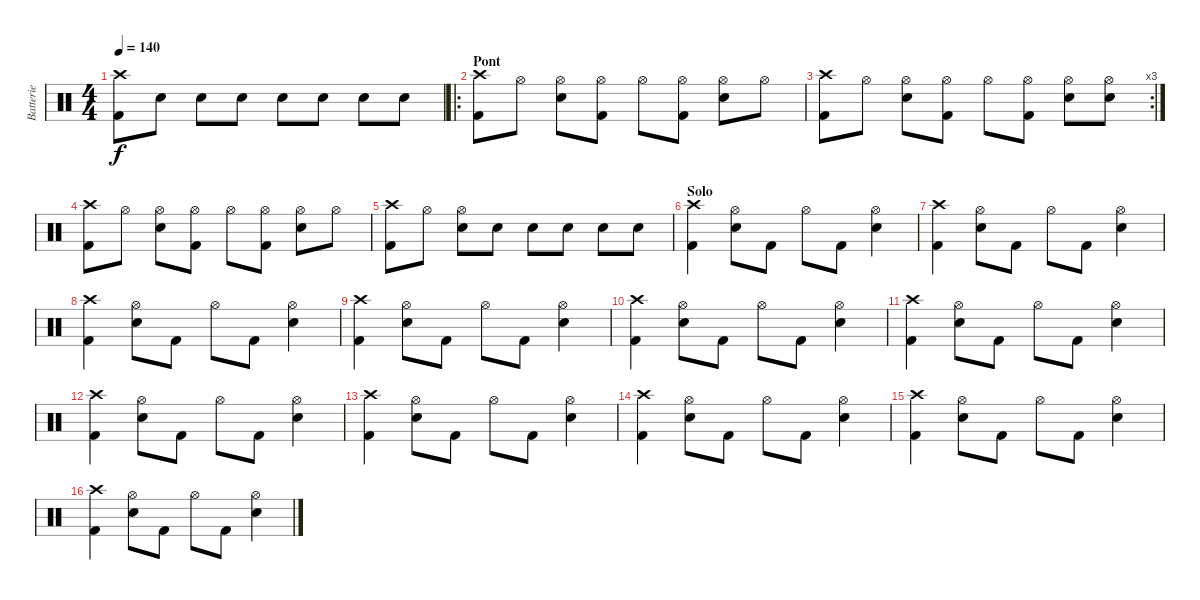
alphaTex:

\track ("Batterie" "Batterie") {instrument percussion}
\staff {score}
\articulation defaults
\ts (4 4)
\tempo 140
\clef neutral
\ks c
("Crash high (hit)" "Kick (hit) 2").8{dy f} "Electric Snare (hit)".8 "Electric Snare (hit)".8 "Electric Snare (hit)".8 "Electric Snare (hit)".8 "Electric Snare (hit)".8 "Electric Snare (hit)".8 "Electric Snare (hit)".8 |
\ro
\section ("" "Pont")
("Crash high (hit)" "Kick (hit) 2").8 "Hi-Hat (open)".8 ("Electric Snare (hit)" "Hi-Hat (open)").8 ("Hi-Hat (open)" "Kick (hit) 2").8 "Hi-Hat (open)".8 ("Hi-Hat (open)" "Kick (hit) 2").8 ("Electric Snare (hit)" "Hi-Hat (open)").8 "Hi-Hat (open)".8 |
\rc 3
("Crash high (hit)" "Kick (hit) 2").8 "Hi-Hat (open)".8 ("Electric Snare (hit)" "Hi-Hat (open)").8 ("Hi-Hat (open)" "Kick (hit) 2").8 "Hi-Hat (open)".8 ("Hi-Hat (open)" "Kick (hit) 2").8 ("Electric Snare (hit)" "Hi-Hat (open)").8 ("Electric Snare (hit)" "Hi-Hat (open)").8 |
("Crash high (hit)" "Kick (hit) 2").8 "Hi-Hat (open)".8 ("Electric Snare (hit)" "Hi-Hat (open)").8 ("Hi-Hat (open)" "Kick (hit) 2").8 "Hi-Hat (open)".8 ("Hi-Hat (open)" "Kick (hit) 2").8 ("Electric Snare (hit)" "Hi-Hat (open)").8 "Hi-Hat (open)".8 |
("Crash high (hit)" "Kick (hit) 2").8 "Hi-Hat (open)".8 ("Electric Snare (hit)" "Hi-Hat (open)").8 "Electric Snare (hit)".8 "Electric Snare (hit)".8 "Electric Snare (hit)".8 "Electric Snare (hit)".8 "Electric Snare (hit)".8 |
\section ("" "Solo")
("Crash high (hit)" "Kick (hit) 2").4 ("Electric Snare (hit)" "Hi-Hat (open)").8 "Kick (hit) 2".8 "Hi-Hat (open)".8 "Kick (hit) 2".8 ("Electric Snare (hit)" "Hi-Hat (open)").4 |
("Crash high (hit)" "Kick (hit) 2").4 ("Electric Snare (hit)" "Hi-Hat (open)").8 "Kick (hit) 2".8 "Hi-Hat (open)".8 "Kick (hit) 2".8 ("Electric Snare (hit)" "Hi-Hat (open)").4 |
("Crash high (hit)" "Kick (hit) 2").4 ("Electric Snare (hit)" "Hi-Hat (open)").8 "Kick (hit) 2".8 "Hi-Hat (open)".8 "Kick (hit) 2".8 ("Electric Snare (hit)" "Hi-Hat (open)").4 |
("Crash high (hit)" "Kick (hit) 2").4 ("Electric Snare (hit)" "Hi-Hat (open)").8 "Kick (hit) 2".8 "Hi-Hat (open)".8 "Kick (hit) 2".8 ("Electric Snare (hit)" "Hi-Hat (open)").4 |
("Crash high (hit)" "Kick (hit) 2").4 ("Electric Snare (hit)" "Hi-Hat (open)").8 "Kick (hit) 2".8 "Hi-Hat (open)".8 "Kick (hit) 2".8 ("Electric Snare (hit)" "Hi-Hat (open)").4 |
("Crash high (hit)" "Kick (hit) 2").4 ("Electric Snare (hit)" "Hi-Hat (open)").8 "Kick (hit) 2".8 "Hi-Hat (open)".8 "Kick (hit) 2".8 ("Electric Snare (hit)" "Hi-Hat (open)").4 |
("Crash high (hit)" "Kick (hit) 2").4 ("Electric Snare (hit)" "Hi-Hat (open)").8 "Kick (hit) 2".8 "Hi-Hat (open)".8 "Kick (hit) 2".8 ("Electric Snare (hit)" "Hi-Hat (open)").4 |
("Crash high (hit)" "Kick (hit) 2").4 ("Electric Snare (hit)" "Hi-Hat (open)").8 "Kick (hit) 2".8 "Hi-Hat (open)".8 "Kick (hit) 2".8 ("Electric Snare (hit)" "Hi-Hat (open)").4 |
("Crash high (hit)" "Kick (hit) 2").4 ("Electric Snare (hit)" "Hi-Hat (open)").8 "Kick (hit) 2".8 "Hi-Hat (open)".8 "Kick (hit) 2".8 ("Electric Snare (hit)" "Hi-Hat (open)").4 |
("Crash high (hit)" "Kick (hit) 2").4 ("Electric Snare (hit)" "Hi-Hat (open)").8 "Kick (hit) 2".8 "Hi-Hat (open)".8 "Kick (hit) 2".8 ("Electric Snare (hit)" "Hi-Hat (open)").4 |
("Crash high (hit)" "Kick (hit) 2").4 ("Electric Snare (hit)" "Hi-Hat (open)").8 "Kick (hit) 2".8 "Hi-Hat (open)".8 "Kick (hit) 2".8 ("Electric Snare (hit)" "Hi-Hat (open)").4
